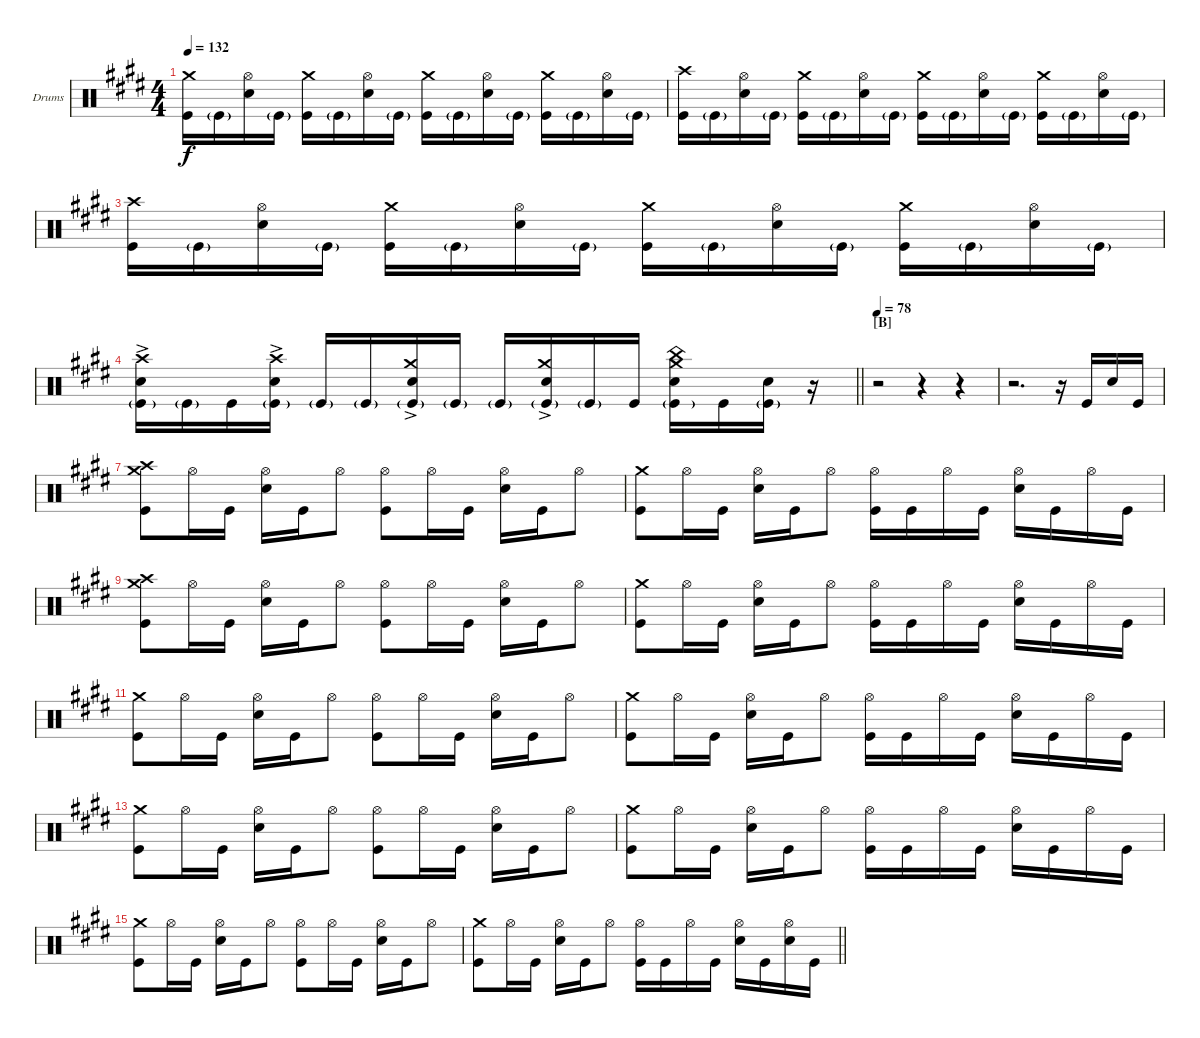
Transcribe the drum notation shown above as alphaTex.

\bracketExtendMode nobrackets
\firstSystemTrackNameOrientation horizontal
\otherSystemsTrackNameOrientation horizontal
\defaultBarNumberDisplay FirstOfSystem
\track ("Drumkit" "Drums") {instrument percussion}
\staff {score}
\articulation defaults
\ts (4 4)
\tempo 132
\clef neutral
\ks c#minor
("Kick (hit)" "Crash medium (hit)").16{dy f} "Kick (hit)"{g}.16 ("Snare (hit) 2" "Hi-Hat (open)").16 "Kick (hit)"{g}.16 ("Crash medium (hit)" "Kick (hit)").16 "Kick (hit)"{g}.16 ("Snare (hit) 2" "Hi-Hat (open)").16 "Kick (hit)"{g}.16 ("Kick (hit)" "Crash medium (hit)").16 "Kick (hit)"{g}.16 ("Snare (hit) 2" "Hi-Hat (open)").16 "Kick (hit)"{g}.16 ("Crash medium (hit)" "Kick (hit)").16 "Kick (hit)"{g}.16 ("Snare (hit) 2" "Hi-Hat (open)").16 "Kick (hit)"{g}.16 |
("Kick (hit)" "Crash high (hit)").16 "Kick (hit)"{g}.16 ("Snare (hit) 2" "Hi-Hat (open)").16 "Kick (hit)"{g}.16 ("Crash medium (hit)" "Kick (hit)").16 "Kick (hit)"{g}.16 ("Snare (hit) 2" "Hi-Hat (open)").16 "Kick (hit)"{g}.16 ("Kick (hit)" "Crash medium (hit)").16 "Kick (hit)"{g}.16 ("Snare (hit) 2" "Hi-Hat (open)").16 "Kick (hit)"{g}.16 ("Crash medium (hit)" "Kick (hit)").16 "Kick (hit)"{g}.16 ("Snare (hit) 2" "Hi-Hat (open)").16 "Kick (hit)"{g}.16 |
("Kick (hit)" "Crash high (hit)").16 "Kick (hit)"{g}.16 ("Snare (hit) 2" "Hi-Hat (open)").16 "Kick (hit)"{g}.16 ("Crash medium (hit)" "Kick (hit)").16 "Kick (hit)"{g}.16 ("Snare (hit) 2" "Hi-Hat (open)").16 "Kick (hit)"{g}.16 ("Kick (hit)" "Crash medium (hit)").16 "Kick (hit)"{g}.16 ("Snare (hit) 2" "Hi-Hat (open)").16 "Kick (hit)"{g}.16 ("Crash medium (hit)" "Kick (hit)").16 "Kick (hit)"{g}.16 ("Snare (hit) 2" "Hi-Hat (open)").16 "Kick (hit)"{g}.16 |
\barLineRight lightlight
("Crash high (hit)"{ac} "Snare (hit) 2" "Kick (hit)"{g}).16 "Kick (hit)"{g}.16 "Kick (hit)".16 ("Crash high (hit)"{ac} "Snare (hit) 2" "Kick (hit)"{g}).16 "Kick (hit)"{g}.16 "Kick (hit)"{g}.16 ("Crash medium (hit)"{ac} "Snare (hit) 2" "Kick (hit)"{g}).16 "Kick (hit)"{g}.16 "Kick (hit)"{g}.16 ("Crash medium (hit)"{ac} "Snare (hit) 2" "Kick (hit)"{g}).16 "Kick (hit)"{g}.16 "Kick (hit)".16 ("China (hit)" "Crash medium (hit)" "Snare (hit) 2" "Kick (hit)"{g}).16 "Kick (hit)".16 ("Snare (hit) 2" "Kick (hit)"{g}).16 r.16 |
\section ("B" "")
\tempo 78
r.2 r.4 r.4 |
r.2{d} r.16 "Kick (hit)".16 "Snare (hit) 2".16 "Kick (hit)".16 |
("Crash medium (hit)" "Crash high (hit)" "Kick (hit)").8 "Hi-Hat (open)".16 "Kick (hit)".16 ("Hi-Hat (open)" "Snare (hit) 2").16 "Kick (hit)".16 "Hi-Hat (open)".8 ("Hi-Hat (open)" "Kick (hit)").8 "Hi-Hat (open)".16 "Kick (hit)".16 ("Hi-Hat (open)" "Snare (hit) 2").16 "Kick (hit)".16 "Hi-Hat (open)".8 |
("Crash medium (hit)" "Kick (hit)").8 "Hi-Hat (open)".16 "Kick (hit)".16 ("Hi-Hat (open)" "Snare (hit) 2").16 "Kick (hit)".16 "Hi-Hat (open)".8 ("Hi-Hat (open)" "Kick (hit)").16 "Kick (hit)".16 "Hi-Hat (open)".16 "Kick (hit)".16 ("Hi-Hat (open)" "Snare (hit) 2").16 "Kick (hit)".16 "Hi-Hat (open)".16 "Kick (hit)".16 |
("Crash medium (hit)" "Crash high (hit)" "Kick (hit)").8 "Hi-Hat (open)".16 "Kick (hit)".16 ("Hi-Hat (open)" "Snare (hit) 2").16 "Kick (hit)".16 "Hi-Hat (open)".8 ("Hi-Hat (open)" "Kick (hit)").8 "Hi-Hat (open)".16 "Kick (hit)".16 ("Hi-Hat (open)" "Snare (hit) 2").16 "Kick (hit)".16 "Hi-Hat (open)".8 |
("Crash medium (hit)" "Kick (hit)").8 "Hi-Hat (open)".16 "Kick (hit)".16 ("Hi-Hat (open)" "Snare (hit) 2").16 "Kick (hit)".16 "Hi-Hat (open)".8 ("Hi-Hat (open)" "Kick (hit)").16 "Kick (hit)".16 "Hi-Hat (open)".16 "Kick (hit)".16 ("Hi-Hat (open)" "Snare (hit) 2").16 "Kick (hit)".16 "Hi-Hat (open)".16 "Kick (hit)".16 |
("Crash medium (hit)" "Kick (hit)").8 "Hi-Hat (open)".16 "Kick (hit)".16 ("Hi-Hat (open)" "Snare (hit) 2").16 "Kick (hit)".16 "Hi-Hat (open)".8 ("Hi-Hat (open)" "Kick (hit)").8 "Hi-Hat (open)".16 "Kick (hit)".16 ("Hi-Hat (open)" "Snare (hit) 2").16 "Kick (hit)".16 "Hi-Hat (open)".8 |
("Crash medium (hit)" "Kick (hit)").8 "Hi-Hat (open)".16 "Kick (hit)".16 ("Hi-Hat (open)" "Snare (hit) 2").16 "Kick (hit)".16 "Hi-Hat (open)".8 ("Hi-Hat (open)" "Kick (hit)").16 "Kick (hit)".16 "Hi-Hat (open)".16 "Kick (hit)".16 ("Hi-Hat (open)" "Snare (hit) 2").16 "Kick (hit)".16 "Hi-Hat (open)".16 "Kick (hit)".16 |
("Crash medium (hit)" "Kick (hit)").8 "Hi-Hat (open)".16 "Kick (hit)".16 ("Hi-Hat (open)" "Snare (hit) 2").16 "Kick (hit)".16 "Hi-Hat (open)".8 ("Hi-Hat (open)" "Kick (hit)").8 "Hi-Hat (open)".16 "Kick (hit)".16 ("Hi-Hat (open)" "Snare (hit) 2").16 "Kick (hit)".16 "Hi-Hat (open)".8 |
("Crash medium (hit)" "Kick (hit)").8 "Hi-Hat (open)".16 "Kick (hit)".16 ("Hi-Hat (open)" "Snare (hit) 2").16 "Kick (hit)".16 "Hi-Hat (open)".8 ("Hi-Hat (open)" "Kick (hit)").16 "Kick (hit)".16 "Hi-Hat (open)".16 "Kick (hit)".16 ("Hi-Hat (open)" "Snare (hit) 2").16 "Kick (hit)".16 "Hi-Hat (open)".16 "Kick (hit)".16 |
("Crash medium (hit)" "Kick (hit)").8 "Hi-Hat (open)".16 "Kick (hit)".16 ("Hi-Hat (open)" "Snare (hit) 2").16 "Kick (hit)".16 "Hi-Hat (open)".8 ("Hi-Hat (open)" "Kick (hit)").8 "Hi-Hat (open)".16 "Kick (hit)".16 ("Hi-Hat (open)" "Snare (hit) 2").16 "Kick (hit)".16 "Hi-Hat (open)".8 |
\barLineRight lightlight
("Crash medium (hit)" "Kick (hit)").8 "Hi-Hat (open)".16 "Kick (hit)".16 ("Hi-Hat (open)" "Snare (hit) 2").16 "Kick (hit)".16 "Hi-Hat (open)".8 ("Hi-Hat (open)" "Kick (hit)").16 "Kick (hit)".16 "Hi-Hat (open)".16 "Kick (hit)".16 ("Hi-Hat (open)" "Snare (hit) 2").16 "Kick (hit)".16 ("Hi-Hat (open)" "Snare (hit) 2").16 "Kick (hit)".16
